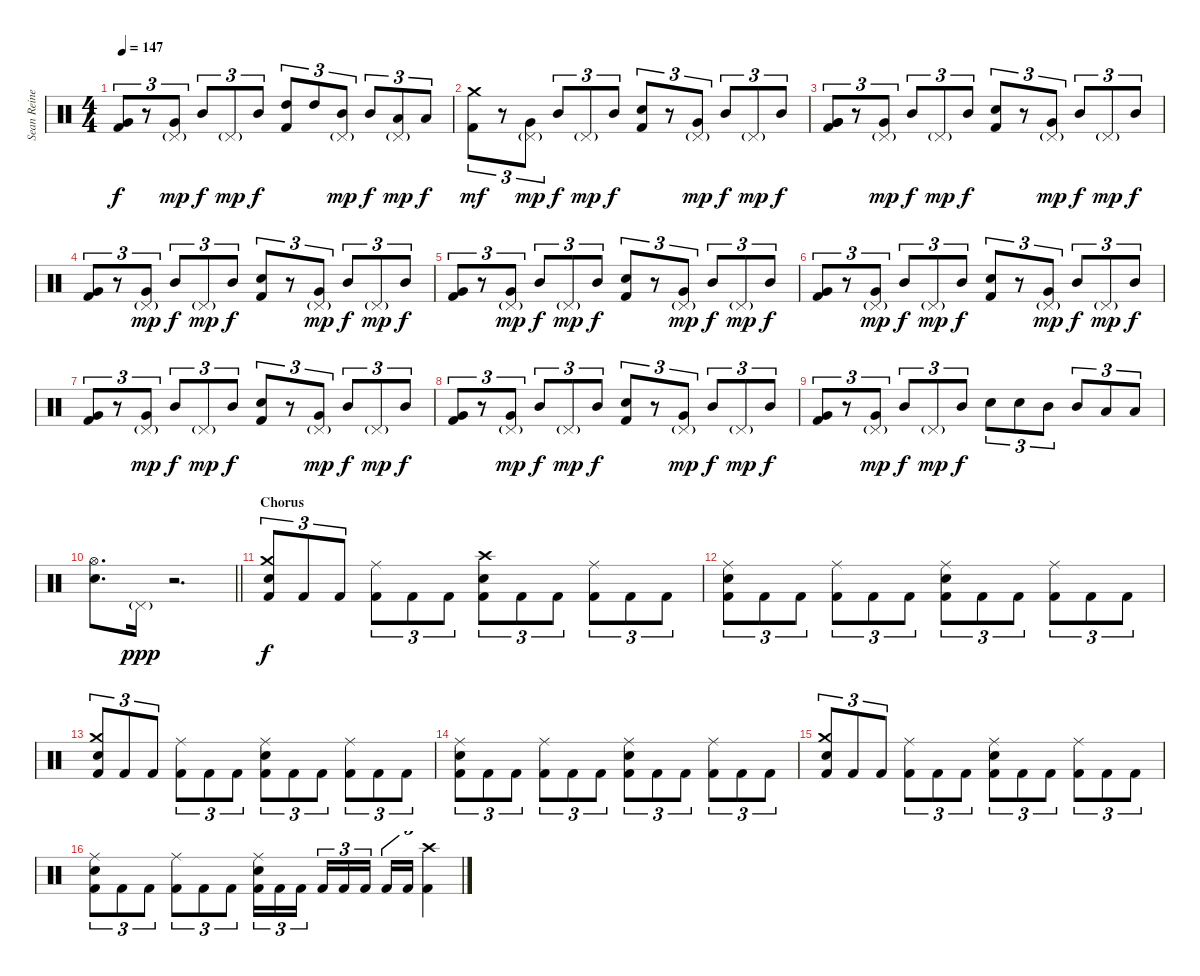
\track ("Sean Reinert" "Sean Reine") {instrument percussion}
\staff {score}
\articulation defaults
\ts (4 4)
\tempo 147
\clef neutral
\ks c
("Very Low Tom (hit)" "Kick (hit) 2").8{tu (3 2) dy f} r.8{tu (3 2)} ("Pedal Hi-Hat (hit)"{g} "Very Low Tom (hit)").8{tu (3 2) dy mp} "Mid Tom (hit)".8{tu (3 2) dy f} "Pedal Hi-Hat (hit)"{g}.8{tu (3 2) dy mp} "Mid Tom (hit)".8{tu (3 2) dy f} ("High Tom (hit)" "Kick (hit) 2").8{tu (3 2)} "High Tom (hit)".8{tu (3 2)} ("Pedal Hi-Hat (hit)"{g} "Mid Tom (hit)").8{tu (3 2) dy mp} "Mid Tom (hit)".8{tu (3 2) dy f} ("Pedal Hi-Hat (hit)"{g} "Low Tom (hit)").8{tu (3 2) dy mp} "Low Tom (hit)".8{tu (3 2) dy f} |
("Crash medium (hit)" "Kick (hit) 2").8{tu (3 2) dy mf} r.8{tu (3 2)} ("Pedal Hi-Hat (hit)"{g} "Very Low Tom (hit)").8{tu (3 2) dy mp} "Mid Tom (hit)".8{tu (3 2) dy f} "Pedal Hi-Hat (hit)"{g}.8{tu (3 2) dy mp} "Mid Tom (hit)".8{tu (3 2) dy f} ("Snare (hit) 2" "Kick (hit) 2").8{tu (3 2)} r.8{tu (3 2)} ("Pedal Hi-Hat (hit)"{g} "Very Low Tom (hit)").8{tu (3 2) dy mp} "Mid Tom (hit)".8{tu (3 2) dy f} "Pedal Hi-Hat (hit)"{g}.8{tu (3 2) dy mp} "Mid Tom (hit)".8{tu (3 2) dy f} |
("Very Low Tom (hit)" "Very Low Tom (hit)" "Kick (hit) 2").8{tu (3 2)} r.8{tu (3 2)} ("Pedal Hi-Hat (hit)"{g} "Very Low Tom (hit)").8{tu (3 2) dy mp} "Mid Tom (hit)".8{tu (3 2) dy f} "Pedal Hi-Hat (hit)"{g}.8{tu (3 2) dy mp} "Mid Tom (hit)".8{tu (3 2) dy f} ("Snare (hit) 2" "Kick (hit) 2").8{tu (3 2)} r.8{tu (3 2)} ("Pedal Hi-Hat (hit)"{g} "Very Low Tom (hit)").8{tu (3 2) dy mp} "Mid Tom (hit)".8{tu (3 2) dy f} "Pedal Hi-Hat (hit)"{g}.8{tu (3 2) dy mp} "Mid Tom (hit)".8{tu (3 2) dy f} |
("Very Low Tom (hit)" "Kick (hit) 2").8{tu (3 2)} r.8{tu (3 2)} ("Pedal Hi-Hat (hit)"{g} "Very Low Tom (hit)").8{tu (3 2) dy mp} "Mid Tom (hit)".8{tu (3 2) dy f} "Pedal Hi-Hat (hit)"{g}.8{tu (3 2) dy mp} "Mid Tom (hit)".8{tu (3 2) dy f} ("Snare (hit) 2" "Kick (hit) 2").8{tu (3 2)} r.8{tu (3 2)} ("Pedal Hi-Hat (hit)"{g} "Very Low Tom (hit)").8{tu (3 2) dy mp} "Mid Tom (hit)".8{tu (3 2) dy f} "Pedal Hi-Hat (hit)"{g}.8{tu (3 2) dy mp} "Mid Tom (hit)".8{tu (3 2) dy f} |
("Very Low Tom (hit)" "Kick (hit) 2").8{tu (3 2)} r.8{tu (3 2)} ("Pedal Hi-Hat (hit)"{g} "Very Low Tom (hit)").8{tu (3 2) dy mp} "Mid Tom (hit)".8{tu (3 2) dy f} "Pedal Hi-Hat (hit)"{g}.8{tu (3 2) dy mp} "Mid Tom (hit)".8{tu (3 2) dy f} ("Snare (hit) 2" "Kick (hit) 2").8{tu (3 2)} r.8{tu (3 2)} ("Pedal Hi-Hat (hit)"{g} "Very Low Tom (hit)").8{tu (3 2) dy mp} "Mid Tom (hit)".8{tu (3 2) dy f} "Pedal Hi-Hat (hit)"{g}.8{tu (3 2) dy mp} "Mid Tom (hit)".8{tu (3 2) dy f} |
("Very Low Tom (hit)" "Kick (hit) 2").8{tu (3 2)} r.8{tu (3 2)} ("Pedal Hi-Hat (hit)"{g} "Very Low Tom (hit)").8{tu (3 2) dy mp} "Mid Tom (hit)".8{tu (3 2) dy f} "Pedal Hi-Hat (hit)"{g}.8{tu (3 2) dy mp} "Mid Tom (hit)".8{tu (3 2) dy f} ("Snare (hit) 2" "Kick (hit) 2").8{tu (3 2)} r.8{tu (3 2)} ("Pedal Hi-Hat (hit)"{g} "Very Low Tom (hit)").8{tu (3 2) dy mp} "Mid Tom (hit)".8{tu (3 2) dy f} "Pedal Hi-Hat (hit)"{g}.8{tu (3 2) dy mp} "Mid Tom (hit)".8{tu (3 2) dy f} |
("Very Low Tom (hit)" "Kick (hit) 2").8{tu (3 2)} r.8{tu (3 2)} ("Pedal Hi-Hat (hit)"{g} "Very Low Tom (hit)").8{tu (3 2) dy mp} "Mid Tom (hit)".8{tu (3 2) dy f} "Pedal Hi-Hat (hit)"{g}.8{tu (3 2) dy mp} "Mid Tom (hit)".8{tu (3 2) dy f} ("Snare (hit) 2" "Kick (hit) 2").8{tu (3 2)} r.8{tu (3 2)} ("Pedal Hi-Hat (hit)"{g} "Very Low Tom (hit)").8{tu (3 2) dy mp} "Mid Tom (hit)".8{tu (3 2) dy f} "Pedal Hi-Hat (hit)"{g}.8{tu (3 2) dy mp} "Mid Tom (hit)".8{tu (3 2) dy f} |
("Very Low Tom (hit)" "Kick (hit) 2").8{tu (3 2)} r.8{tu (3 2)} ("Pedal Hi-Hat (hit)"{g} "Very Low Tom (hit)").8{tu (3 2) dy mp} "Mid Tom (hit)".8{tu (3 2) dy f} "Pedal Hi-Hat (hit)"{g}.8{tu (3 2) dy mp} "Mid Tom (hit)".8{tu (3 2) dy f} ("Snare (hit) 2" "Kick (hit) 2").8{tu (3 2)} r.8{tu (3 2)} ("Pedal Hi-Hat (hit)"{g} "Very Low Tom (hit)").8{tu (3 2) dy mp} "Mid Tom (hit)".8{tu (3 2) dy f} "Pedal Hi-Hat (hit)"{g}.8{tu (3 2) dy mp} "Mid Tom (hit)".8{tu (3 2) dy f} |
("Very Low Tom (hit)" "Kick (hit) 2").8{tu (3 2)} r.8{tu (3 2)} ("Pedal Hi-Hat (hit)"{g} "Very Low Tom (hit)").8{tu (3 2) dy mp} "Mid Tom (hit)".8{tu (3 2) dy f} "Pedal Hi-Hat (hit)"{g}.8{tu (3 2) dy mp} "Mid Tom (hit)".8{tu (3 2) dy f} "Snare (hit) 2".8{tu (3 2)} "Snare (hit) 2".8{tu (3 2)} "Mid Tom (hit)".8{tu (3 2)} "Mid Tom (hit)".8{tu (3 2)} "Low Tom (hit)".8{tu (3 2)} "Low Tom (hit)".8{tu (3 2)} |
\barLineRight lightlight
("Hi-Hat (open)" "Snare (hit) 2").8{d} "Pedal Hi-Hat (hit)"{g}.16{dy ppp} r.2{d} |
\section ("" "Chorus")
("Crash medium (hit)" "Snare (hit) 2" "Kick (hit) 2").8{tu (3 2) dy f} "Kick (hit) 2".8{tu (3 2)} "Kick (hit) 2".8{tu (3 2)} ("Ride (middle)" "Kick (hit) 2").8{tu (3 2)} "Kick (hit) 2".8{tu (3 2)} "Kick (hit) 2".8{tu (3 2)} ("Crash high (hit)" "Snare (hit) 2" "Kick (hit) 2").8{tu (3 2)} "Kick (hit) 2".8{tu (3 2)} "Kick (hit) 2".8{tu (3 2)} ("Ride (middle)" "Kick (hit) 2").8{tu (3 2)} "Kick (hit) 2".8{tu (3 2)} "Kick (hit) 2".8{tu (3 2)} |
("Ride (middle)" "Snare (hit) 2" "Kick (hit) 2").8{tu (3 2)} "Kick (hit) 2".8{tu (3 2)} "Kick (hit) 2".8{tu (3 2)} ("Ride (middle)" "Kick (hit) 2").8{tu (3 2)} "Kick (hit) 2".8{tu (3 2)} "Kick (hit) 2".8{tu (3 2)} ("Ride (middle)" "Snare (hit) 2" "Kick (hit) 2").8{tu (3 2)} "Kick (hit) 2".8{tu (3 2)} "Kick (hit) 2".8{tu (3 2)} ("Ride (middle)" "Kick (hit) 2").8{tu (3 2)} "Kick (hit) 2".8{tu (3 2)} "Kick (hit) 2".8{tu (3 2)} |
("Crash medium (hit)" "Snare (hit) 2" "Kick (hit) 2").8{tu (3 2)} "Kick (hit) 2".8{tu (3 2)} "Kick (hit) 2".8{tu (3 2)} ("Ride (middle)" "Kick (hit) 2").8{tu (3 2)} "Kick (hit) 2".8{tu (3 2)} "Kick (hit) 2".8{tu (3 2)} ("Ride (middle)" "Snare (hit) 2" "Kick (hit) 2").8{tu (3 2)} "Kick (hit) 2".8{tu (3 2)} "Kick (hit) 2".8{tu (3 2)} ("Ride (middle)" "Kick (hit) 2").8{tu (3 2)} "Kick (hit) 2".8{tu (3 2)} "Kick (hit) 2".8{tu (3 2)} |
("Ride (middle)" "Snare (hit) 2" "Kick (hit) 2").8{tu (3 2)} "Kick (hit) 2".8{tu (3 2)} "Kick (hit) 2".8{tu (3 2)} ("Ride (middle)" "Kick (hit) 2").8{tu (3 2)} "Kick (hit) 2".8{tu (3 2)} "Kick (hit) 2".8{tu (3 2)} ("Ride (middle)" "Snare (hit) 2" "Kick (hit) 2").8{tu (3 2)} "Kick (hit) 2".8{tu (3 2)} "Kick (hit) 2".8{tu (3 2)} ("Ride (middle)" "Kick (hit) 2").8{tu (3 2)} "Kick (hit) 2".8{tu (3 2)} "Kick (hit) 2".8{tu (3 2)} |
("Crash medium (hit)" "Snare (hit) 2" "Kick (hit) 2").8{tu (3 2)} "Kick (hit) 2".8{tu (3 2)} "Kick (hit) 2".8{tu (3 2)} ("Ride (middle)" "Kick (hit) 2").8{tu (3 2)} "Kick (hit) 2".8{tu (3 2)} "Kick (hit) 2".8{tu (3 2)} ("Ride (middle)" "Snare (hit) 2" "Kick (hit) 2").8{tu (3 2)} "Kick (hit) 2".8{tu (3 2)} "Kick (hit) 2".8{tu (3 2)} ("Ride (middle)" "Kick (hit) 2").8{tu (3 2)} "Kick (hit) 2".8{tu (3 2)} "Kick (hit) 2".8{tu (3 2)} |
("Ride (middle)" "Snare (hit) 2" "Kick (hit) 2").8{tu (3 2)} "Kick (hit) 2".8{tu (3 2)} "Kick (hit) 2".8{tu (3 2)} ("Ride (middle)" "Kick (hit) 2").8{tu (3 2)} "Kick (hit) 2".8{tu (3 2)} "Kick (hit) 2".8{tu (3 2)} ("Ride (middle)" "Snare (hit) 2" "Kick (hit) 2").16{tu (3 2)} "Kick (hit) 2".16{tu (3 2)} "Kick (hit) 2".16{tu (3 2) beam splitsecondary} "Kick (hit) 2".16{tu (3 2)} "Kick (hit) 2".16{tu (3 2)} "Kick (hit) 2".16{tu (3 2)} "Kick (hit) 2".16{tu (3 2)} "Kick (hit) 2".16{tu (3 2)} ("Crash high (hit)" "Kick (hit) 2").4{tu (3 2)}
